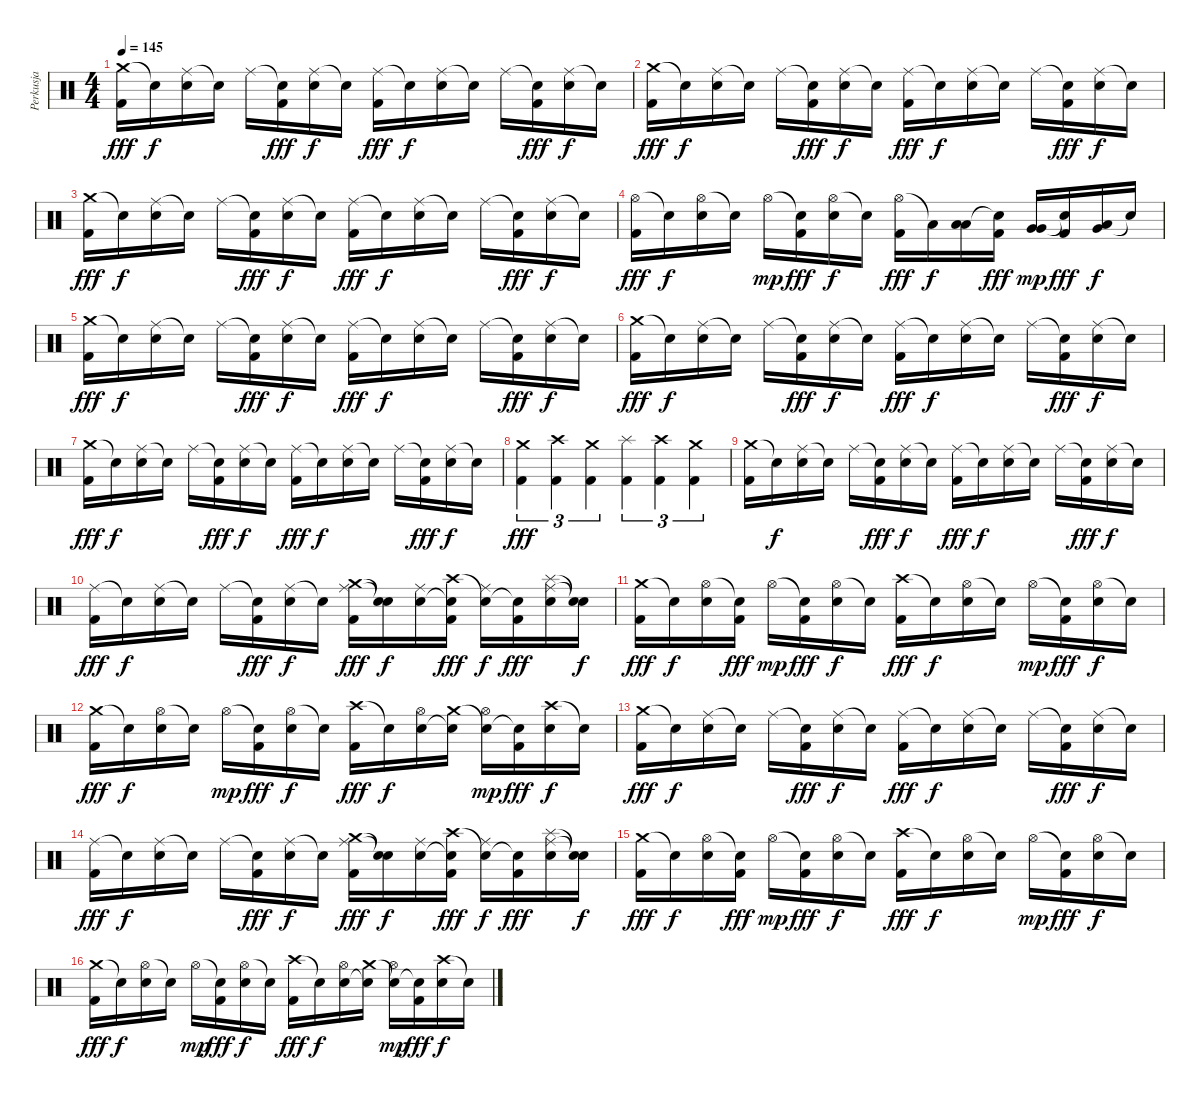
\track ("Perkusja" "Perkusja") {instrument percussion}
\staff {score}
\articulation defaults
\ts (4 4)
\section ("" "")
\tempo 145
\clef neutral
\ks c
("Crash medium (hit)" "Kick (hit) 2").16{dy fff} "Snare (hit)"{t}.16{dy f} ("Ride (middle)" "Electric Snare (hit)").16 "Snare (hit)"{t}.16 "Ride (middle)".16 ("Snare (hit)"{t} "Kick (hit) 2").16{dy fff} ("Ride (middle)" "Electric Snare (hit)").16{dy f} "Snare (hit)"{t}.16 ("Ride (middle)" "Kick (hit) 2").16{dy fff} "Snare (hit)"{t}.16{dy f} ("Ride (middle)" "Electric Snare (hit)").16 "Snare (hit)"{t}.16 "Ride (middle)".16 ("Snare (hit)"{t} "Kick (hit) 2").16{dy fff} ("Ride (middle)" "Electric Snare (hit)").16{dy f} "Snare (hit)"{t}.16 |
("Crash medium (hit)" "Kick (hit) 2").16{dy fff} "Snare (hit)"{t}.16{dy f} ("Ride (middle)" "Electric Snare (hit)").16 "Snare (hit)"{t}.16 "Ride (middle)".16 ("Snare (hit)"{t} "Kick (hit) 2").16{dy fff} ("Ride (middle)" "Electric Snare (hit)").16{dy f} "Snare (hit)"{t}.16 ("Ride (middle)" "Kick (hit) 2").16{dy fff} "Snare (hit)"{t}.16{dy f} ("Ride (middle)" "Electric Snare (hit)").16 "Snare (hit)"{t}.16 "Ride (middle)".16 ("Snare (hit)"{t} "Kick (hit) 2").16{dy fff} ("Ride (middle)" "Electric Snare (hit)").16{dy f} "Snare (hit)"{t}.16 |
("Crash medium (hit)" "Kick (hit) 2").16{dy fff} "Snare (hit)"{t}.16{dy f} ("Ride (middle)" "Electric Snare (hit)").16 "Snare (hit)"{t}.16 "Ride (middle)".16 ("Snare (hit)"{t} "Kick (hit) 2").16{dy fff} ("Ride (middle)" "Electric Snare (hit)").16{dy f} "Snare (hit)"{t}.16 ("Ride (middle)" "Kick (hit) 2").16{dy fff} "Snare (hit)"{t}.16{dy f} ("Ride (middle)" "Electric Snare (hit)").16 "Snare (hit)"{t}.16 "Ride (middle)".16 ("Snare (hit)"{t} "Kick (hit) 2").16{dy fff} ("Ride (middle)" "Electric Snare (hit)").16{dy f} "Snare (hit)"{t}.16 |
("Hi-Hat (open)" "Kick (hit) 2").16{dy fff} "Snare (hit)"{t}.16{dy f} ("Hi-Hat (open)" "Electric Snare (hit)").16 "Snare (hit)"{t}.16 "Hi-Hat (open)".16{dy mp} ("Snare (hit)"{t} "Kick (hit) 2").16{dy fff} ("Hi-Hat (open)" "Electric Snare (hit)").16{dy f} "Snare (hit)"{t}.16 ("Hi-Hat (open)" "Kick (hit) 2").16{dy fff} "Low Tom (hit)"{t}.16{dy f} ("Low Tom (hit)" "Low Tom (hit)").16 ("Snare (hit)"{t} "Kick (hit) 2").16{dy fff} ("Very Low Tom (hit)" "Very Low Tom (hit)").16{dy mp} ("Snare (hit)"{t} "Kick (hit) 2").16{dy fff} ("Very Low Tom (hit)" "Low Floor Tom (hit)").16{dy f} "Snare (hit)"{t}.16 |
("Crash medium (hit)" "Kick (hit) 2").16{dy fff} "Snare (hit)"{t}.16{dy f} ("Ride (middle)" "Electric Snare (hit)").16 "Snare (hit)"{t}.16 "Ride (middle)".16 ("Snare (hit)"{t} "Kick (hit) 2").16{dy fff} ("Ride (middle)" "Electric Snare (hit)").16{dy f} "Snare (hit)"{t}.16 ("Ride (middle)" "Kick (hit) 2").16{dy fff} "Snare (hit)"{t}.16{dy f} ("Ride (middle)" "Electric Snare (hit)").16 "Snare (hit)"{t}.16 "Ride (middle)".16 ("Snare (hit)"{t} "Kick (hit) 2").16{dy fff} ("Ride (middle)" "Electric Snare (hit)").16{dy f} "Snare (hit)"{t}.16 |
("Crash medium (hit)" "Kick (hit) 2").16{dy fff} "Snare (hit)"{t}.16{dy f} ("Ride (middle)" "Electric Snare (hit)").16 "Snare (hit)"{t}.16 "Ride (middle)".16 ("Snare (hit)"{t} "Kick (hit) 2").16{dy fff} ("Ride (middle)" "Electric Snare (hit)").16{dy f} "Snare (hit)"{t}.16 ("Ride (middle)" "Kick (hit) 2").16{dy fff} "Snare (hit)"{t}.16{dy f} ("Ride (middle)" "Electric Snare (hit)").16 "Snare (hit)"{t}.16 "Ride (middle)".16 ("Snare (hit)"{t} "Kick (hit) 2").16{dy fff} ("Ride (middle)" "Electric Snare (hit)").16{dy f} "Snare (hit)"{t}.16 |
("Crash medium (hit)" "Kick (hit) 2").16{dy fff} "Snare (hit)"{t}.16{dy f} ("Ride (middle)" "Electric Snare (hit)").16 "Snare (hit)"{t}.16 "Ride (middle)".16 ("Snare (hit)"{t} "Kick (hit) 2").16{dy fff} ("Ride (middle)" "Electric Snare (hit)").16{dy f} "Snare (hit)"{t}.16 ("Ride (middle)" "Kick (hit) 2").16{dy fff} "Snare (hit)"{t}.16{dy f} ("Ride (middle)" "Electric Snare (hit)").16 "Snare (hit)"{t}.16 "Ride (middle)".16 ("Snare (hit)"{t} "Kick (hit) 2").16{dy fff} ("Ride (middle)" "Electric Snare (hit)").16{dy f} "Snare (hit)"{t}.16 |
("Crash medium (hit)" "Kick (hit) 2").4{tu (3 2) dy fff} ("Crash high (hit)" "Kick (hit) 2").4{tu (3 2)} ("Crash medium (hit)" "Kick (hit) 2").4{tu (3 2)} ("Splash (hit)" "Kick (hit) 2").4{tu (3 2)} ("Crash high (hit)" "Kick (hit) 2").4{tu (3 2)} ("Crash medium (hit)" "Kick (hit) 2").4{tu (3 2)} |
("Crash medium (hit)" "Kick (hit) 2").16 "Snare (hit)"{t}.16{dy f} ("Ride (middle)" "Electric Snare (hit)").16 "Snare (hit)"{t}.16 "Ride (middle)".16 ("Snare (hit)"{t} "Kick (hit) 2").16{dy fff} ("Ride (middle)" "Electric Snare (hit)").16{dy f} "Snare (hit)"{t}.16 ("Ride (middle)" "Kick (hit) 2").16{dy fff} "Snare (hit)"{t}.16{dy f} ("Ride (middle)" "Electric Snare (hit)").16 "Snare (hit)"{t}.16 "Ride (middle)".16 ("Snare (hit)"{t} "Kick (hit) 2").16{dy fff} ("Ride (middle)" "Electric Snare (hit)").16{dy f} "Snare (hit)"{t}.16 |
("Ride (middle)" "Kick (hit) 2").16{dy fff} "Snare (hit)"{t}.16{dy f} ("Ride (middle)" "Electric Snare (hit)").16 "Snare (hit)"{t}.16 "Ride (middle)".16 ("Snare (hit)"{t} "Kick (hit) 2").16{dy fff} ("Ride (middle)" "Electric Snare (hit)").16{dy f} "Snare (hit)"{t}.16 ("Crash medium (hit)" "Ride (middle)" "Kick (hit) 2").16{dy fff} ("Snare (hit)"{t} "Snare (hit)"{t}).16{dy f} ("Ride (middle)" "Electric Snare (hit)").16 ("Crash high (hit)" "Snare (hit)"{t} "Kick (hit) 2").16{dy fff} ("Snare (hit)"{t} "Ride (middle)").16{dy f} ("Snare (hit)"{t} "Kick (hit) 2").16{dy fff} ("Splash (hit)" "Ride (middle)" "Electric Snare (hit)").16 ("Snare (hit)"{t} "Snare (hit)"{t}).16{dy f} |
("Crash medium (hit)" "Kick (hit) 2").16{dy fff} "Snare (hit)"{t}.16{dy f} ("Hi-Hat (open)" "Electric Snare (hit)").16 ("Snare (hit)"{t} "Kick (hit) 2").16{dy fff} "Hi-Hat (open)".16{dy mp} ("Snare (hit)"{t} "Kick (hit) 2").16{dy fff} ("Hi-Hat (open)" "Electric Snare (hit)").16{dy f} "Snare (hit)"{t}.16 ("Crash high (hit)" "Kick (hit) 2").16{dy fff} "Snare (hit)"{t}.16{dy f} ("Hi-Hat (open)" "Electric Snare (hit)").16 "Snare (hit)"{t}.16 "Hi-Hat (open)".16{dy mp} ("Snare (hit)"{t} "Kick (hit) 2").16{dy fff} ("Hi-Hat (open)" "Electric Snare (hit)").16{dy f} "Snare (hit)"{t}.16 |
("Crash medium (hit)" "Kick (hit) 2").16{dy fff} "Snare (hit)"{t}.16{dy f} ("Hi-Hat (open)" "Electric Snare (hit)").16 "Snare (hit)"{t}.16 "Hi-Hat (open)".16{dy mp} ("Snare (hit)"{t} "Kick (hit) 2").16{dy fff} ("Hi-Hat (open)" "Electric Snare (hit)").16{dy f} "Snare (hit)"{t}.16 ("Crash high (hit)" "Kick (hit) 2").16{dy fff} "Snare (hit)"{t}.16{dy f} ("Hi-Hat (open)" "Electric Snare (hit)").16 ("Crash medium (hit)" "Snare (hit)"{t}).16 ("Snare (hit)"{t} "Hi-Hat (open)").16{dy mp} ("Snare (hit)"{t} "Kick (hit) 2").16{dy fff} ("Crash high (hit)" "Electric Snare (hit)").16{dy f} "Snare (hit)"{t}.16 |
("Crash medium (hit)" "Kick (hit) 2").16{dy fff} "Snare (hit)"{t}.16{dy f} ("Ride (middle)" "Electric Snare (hit)").16 "Snare (hit)"{t}.16 "Ride (middle)".16 ("Snare (hit)"{t} "Kick (hit) 2").16{dy fff} ("Ride (middle)" "Electric Snare (hit)").16{dy f} "Snare (hit)"{t}.16 ("Ride (middle)" "Kick (hit) 2").16{dy fff} "Snare (hit)"{t}.16{dy f} ("Ride (middle)" "Electric Snare (hit)").16 "Snare (hit)"{t}.16 "Ride (middle)".16 ("Snare (hit)"{t} "Kick (hit) 2").16{dy fff} ("Ride (middle)" "Electric Snare (hit)").16{dy f} "Snare (hit)"{t}.16 |
("Ride (middle)" "Kick (hit) 2").16{dy fff} "Snare (hit)"{t}.16{dy f} ("Ride (middle)" "Electric Snare (hit)").16 "Snare (hit)"{t}.16 "Ride (middle)".16 ("Snare (hit)"{t} "Kick (hit) 2").16{dy fff} ("Ride (middle)" "Electric Snare (hit)").16{dy f} "Snare (hit)"{t}.16 ("Crash medium (hit)" "Ride (middle)" "Kick (hit) 2").16{dy fff} ("Snare (hit)"{t} "Snare (hit)"{t}).16{dy f} ("Ride (middle)" "Electric Snare (hit)").16 ("Crash high (hit)" "Snare (hit)"{t} "Kick (hit) 2").16{dy fff} ("Snare (hit)"{t} "Ride (middle)").16{dy f} ("Snare (hit)"{t} "Kick (hit) 2").16{dy fff} ("Splash (hit)" "Ride (middle)" "Electric Snare (hit)").16 ("Snare (hit)"{t} "Snare (hit)"{t}).16{dy f} |
("Crash medium (hit)" "Kick (hit) 2").16{dy fff} "Snare (hit)"{t}.16{dy f} ("Hi-Hat (open)" "Electric Snare (hit)").16 ("Snare (hit)"{t} "Kick (hit) 2").16{dy fff} "Hi-Hat (open)".16{dy mp} ("Snare (hit)"{t} "Kick (hit) 2").16{dy fff} ("Hi-Hat (open)" "Electric Snare (hit)").16{dy f} "Snare (hit)"{t}.16 ("Crash high (hit)" "Kick (hit) 2").16{dy fff} "Snare (hit)"{t}.16{dy f} ("Hi-Hat (open)" "Electric Snare (hit)").16 "Snare (hit)"{t}.16 "Hi-Hat (open)".16{dy mp} ("Snare (hit)"{t} "Kick (hit) 2").16{dy fff} ("Hi-Hat (open)" "Electric Snare (hit)").16{dy f} "Snare (hit)"{t}.16 |
("Crash medium (hit)" "Kick (hit) 2").16{dy fff} "Snare (hit)"{t}.16{dy f} ("Hi-Hat (open)" "Electric Snare (hit)").16 "Snare (hit)"{t}.16 "Hi-Hat (open)".16{dy mp} ("Snare (hit)"{t} "Kick (hit) 2").16{dy fff} ("Hi-Hat (open)" "Electric Snare (hit)").16{dy f} "Snare (hit)"{t}.16 ("Crash high (hit)" "Kick (hit) 2").16{dy fff} "Snare (hit)"{t}.16{dy f} ("Hi-Hat (open)" "Electric Snare (hit)").16 ("Crash medium (hit)" "Snare (hit)"{t}).16 ("Snare (hit)"{t} "Hi-Hat (open)").16{dy mp} ("Snare (hit)"{t} "Kick (hit) 2").16{dy fff} ("Crash high (hit)" "Electric Snare (hit)").16{dy f} "Snare (hit)"{t}.16
